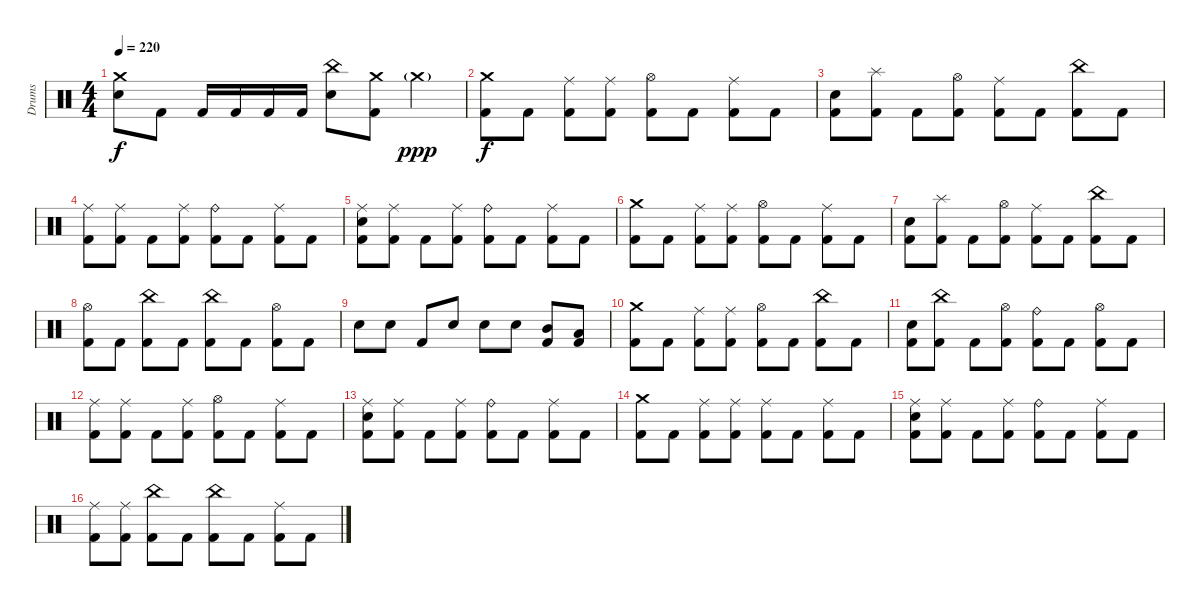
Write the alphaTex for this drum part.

\track ("Drums" "Drums") {instrument percussion}
\staff
\articulation defaults
\ts (4 4)
\tempo 220
\clef neutral
\ks c
("Crash medium (hit)" "Electric Snare (hit)").8{dy f} "Kick (hit) 2".8 "Kick (hit) 2".16 "Kick (hit) 2".16 "Kick (hit) 2".16 "Kick (hit) 2".16 ("China (hit)" "Electric Snare (hit)").8 ("Crash medium (hit)" "Kick (hit) 2").8 "Crash medium (hit)"{g}.4{dy ppp} |
("Crash medium (hit)" "Kick (hit) 2").8{dy f} "Kick (hit) 2".8 ("Ride (middle)" "Kick (hit) 2").8 ("Ride (middle)" "Kick (hit) 2").8 ("Hi-Hat (open)" "Kick (hit) 2").8 "Kick (hit) 2".8 ("Ride (middle)" "Kick (hit) 2").8 "Kick (hit) 2".8 |
("Electric Snare (hit)" "Kick (hit) 2").8 ("Splash (hit)" "Kick (hit) 2").8 "Kick (hit) 2".8 ("Hi-Hat (open)" "Kick (hit) 2").8 ("Ride (middle)" "Kick (hit) 2").8 "Kick (hit) 2".8 ("China (hit)" "Kick (hit) 2").8 "Kick (hit) 2".8 |
("Ride (middle)" "Kick (hit) 2").8 ("Ride (middle)" "Kick (hit) 2").8 "Kick (hit) 2".8 ("Ride (middle)" "Kick (hit) 2").8 ("Ride (bell)" "Kick (hit) 2").8 "Kick (hit) 2".8 ("Ride (middle)" "Kick (hit) 2").8 "Kick (hit) 2".8 |
("Ride (middle)" "Electric Snare (hit)" "Kick (hit) 2").8 ("Ride (middle)" "Kick (hit) 2").8 "Kick (hit) 2".8 ("Ride (middle)" "Kick (hit) 2").8 ("Ride (bell)" "Kick (hit) 2").8 "Kick (hit) 2".8 ("Ride (middle)" "Kick (hit) 2").8 "Kick (hit) 2".8 |
("Crash medium (hit)" "Kick (hit) 2").8 "Kick (hit) 2".8 ("Ride (middle)" "Kick (hit) 2").8 ("Ride (middle)" "Kick (hit) 2").8 ("Hi-Hat (open)" "Kick (hit) 2").8 "Kick (hit) 2".8 ("Ride (middle)" "Kick (hit) 2").8 "Kick (hit) 2".8 |
("Electric Snare (hit)" "Kick (hit) 2").8 ("Splash (hit)" "Kick (hit) 2").8 "Kick (hit) 2".8 ("Hi-Hat (open)" "Kick (hit) 2").8 ("Ride (middle)" "Kick (hit) 2").8 "Kick (hit) 2".8 ("China (hit)" "Kick (hit) 2").8 "Kick (hit) 2".8 |
("Hi-Hat (open)" "Kick (hit) 2").8 "Kick (hit) 2".8 ("China (hit)" "Kick (hit) 2").8 "Kick (hit) 2".8 ("China (hit)" "Kick (hit) 2").8 "Kick (hit) 2".8 ("Hi-Hat (open)" "Kick (hit) 2").8 "Kick (hit) 2".8 |
"Electric Snare (hit)".8 "Electric Snare (hit)".8 "Kick (hit) 2".8 "Electric Snare (hit)".8 "Electric Snare (hit)".8 "Electric Snare (hit)".8 ("Mid Tom (hit)" "Kick (hit) 2").8 ("Low Tom (hit)" "Kick (hit) 2").8 |
("Crash medium (hit)" "Kick (hit) 2").8 "Kick (hit) 2".8 ("Ride (middle)" "Kick (hit) 2").8 ("Ride (middle)" "Kick (hit) 2").8 ("Hi-Hat (open)" "Kick (hit) 2").8 "Kick (hit) 2".8 ("China (hit)" "Kick (hit) 2").8 "Kick (hit) 2".8 |
("Electric Snare (hit)" "Kick (hit) 2").8 ("China (hit)" "Kick (hit) 2").8 "Kick (hit) 2".8 ("Hi-Hat (open)" "Kick (hit) 2").8 ("Ride (bell)" "Kick (hit) 2").8 "Kick (hit) 2".8 ("Hi-Hat (open)" "Kick (hit) 2").8 "Kick (hit) 2".8 |
("Ride (middle)" "Kick (hit) 2").8 ("Ride (middle)" "Kick (hit) 2").8 "Kick (hit) 2".8 ("Ride (middle)" "Kick (hit) 2").8 ("Hi-Hat (open)" "Kick (hit) 2").8 "Kick (hit) 2".8 ("Ride (middle)" "Kick (hit) 2").8 "Kick (hit) 2".8 |
("Ride (middle)" "Electric Snare (hit)" "Kick (hit) 2").8 ("Ride (middle)" "Kick (hit) 2").8 "Kick (hit) 2".8 ("Ride (middle)" "Kick (hit) 2").8 ("Ride (bell)" "Kick (hit) 2").8 "Kick (hit) 2".8 ("Ride (middle)" "Kick (hit) 2").8 "Kick (hit) 2".8 |
("Crash medium (hit)" "Kick (hit) 2").8 "Kick (hit) 2".8 ("Ride (middle)" "Kick (hit) 2").8 ("Ride (middle)" "Kick (hit) 2").8 ("Ride (middle)" "Kick (hit) 2").8 "Kick (hit) 2".8 ("Ride (middle)" "Kick (hit) 2").8 "Kick (hit) 2".8 |
("Ride (middle)" "Electric Snare (hit)" "Kick (hit) 2").8 ("Ride (middle)" "Kick (hit) 2").8 "Kick (hit) 2".8 ("Ride (middle)" "Kick (hit) 2").8 ("Ride (bell)" "Kick (hit) 2").8 "Kick (hit) 2".8 ("Ride (middle)" "Kick (hit) 2").8 "Kick (hit) 2".8 |
("Ride (middle)" "Kick (hit) 2").8 ("Ride (middle)" "Kick (hit) 2").8 ("China (hit)" "Kick (hit) 2").8 "Kick (hit) 2".8 ("China (hit)" "Kick (hit) 2").8 "Kick (hit) 2".8 ("Ride (middle)" "Kick (hit) 2").8 "Kick (hit) 2".8
